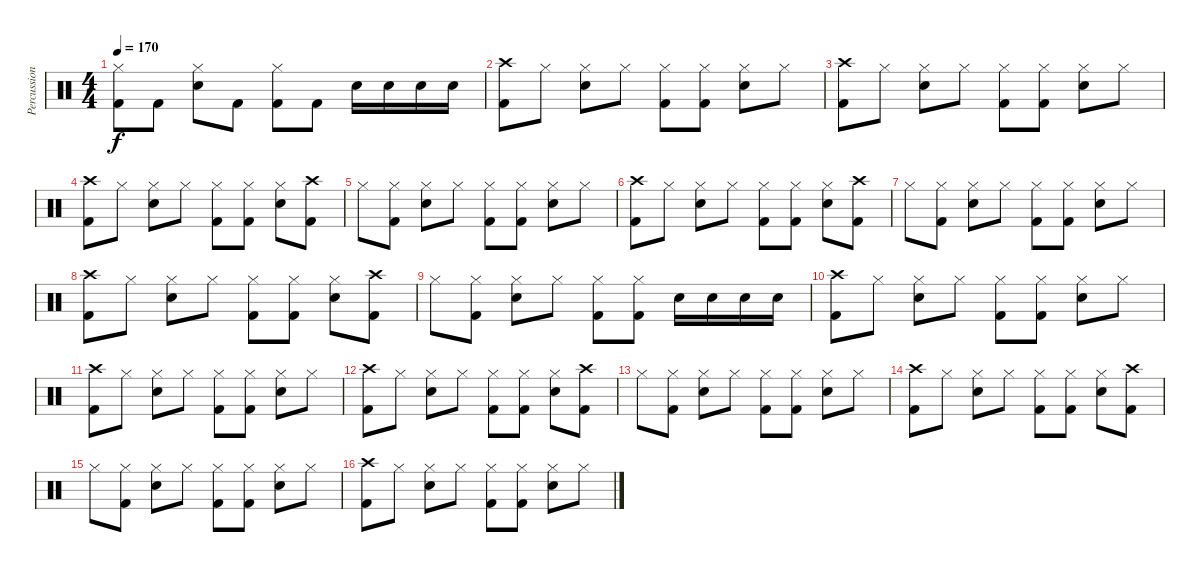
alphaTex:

\track ("Percussion" "Percussion") {instrument percussion}
\staff {score}
\articulation defaults
\ts (4 4)
\tempo 170
\clef neutral
\ks c
("Hi-Hat (closed)" "Kick (hit) 2").8{dy f} "Kick (hit) 2".8 ("Hi-Hat (closed)" "Snare (hit) 2").8 "Kick (hit) 2".8 ("Hi-Hat (closed)" "Kick (hit) 2").8 "Kick (hit) 2".8 "Snare (hit) 2".16 "Snare (hit) 2".16 "Snare (hit) 2".16 "Snare (hit) 2".16 |
("Crash high (hit)" "Kick (hit) 2").8 "Hi-Hat (closed)".8 ("Hi-Hat (closed)" "Snare (hit) 2").8 "Hi-Hat (closed)".8 ("Hi-Hat (closed)" "Kick (hit) 2").8 ("Hi-Hat (closed)" "Kick (hit) 2").8 ("Hi-Hat (closed)" "Snare (hit) 2").8 "Hi-Hat (closed)".8 |
("Crash high (hit)" "Kick (hit) 2").8 "Hi-Hat (closed)".8 ("Hi-Hat (closed)" "Snare (hit) 2").8 "Hi-Hat (closed)".8 ("Hi-Hat (closed)" "Kick (hit) 2").8 ("Hi-Hat (closed)" "Kick (hit) 2").8 ("Hi-Hat (closed)" "Snare (hit) 2").8 "Hi-Hat (closed)".8 |
("Crash high (hit)" "Kick (hit) 2").8 "Hi-Hat (closed)".8 ("Hi-Hat (closed)" "Snare (hit) 2").8 "Hi-Hat (closed)".8 ("Hi-Hat (closed)" "Kick (hit) 2").8 ("Hi-Hat (closed)" "Kick (hit) 2").8 ("Hi-Hat (closed)" "Snare (hit) 2").8 ("Crash high (hit)" "Kick (hit) 2").8 |
"Hi-Hat (closed)".8 ("Hi-Hat (closed)" "Kick (hit) 2").8 ("Hi-Hat (closed)" "Snare (hit) 2").8 "Hi-Hat (closed)".8 ("Hi-Hat (closed)" "Kick (hit) 2").8 ("Hi-Hat (closed)" "Kick (hit) 2").8 ("Hi-Hat (closed)" "Snare (hit) 2").8 "Hi-Hat (closed)".8 |
("Crash high (hit)" "Kick (hit) 2").8 "Hi-Hat (closed)".8 ("Hi-Hat (closed)" "Snare (hit) 2").8 "Hi-Hat (closed)".8 ("Hi-Hat (closed)" "Kick (hit) 2").8 ("Hi-Hat (closed)" "Kick (hit) 2").8 ("Hi-Hat (closed)" "Snare (hit) 2").8 ("Crash high (hit)" "Kick (hit) 2").8 |
"Hi-Hat (closed)".8 ("Hi-Hat (closed)" "Kick (hit) 2").8 ("Hi-Hat (closed)" "Snare (hit) 2").8 "Hi-Hat (closed)".8 ("Hi-Hat (closed)" "Kick (hit) 2").8 ("Hi-Hat (closed)" "Kick (hit) 2").8 ("Hi-Hat (closed)" "Snare (hit) 2").8 "Hi-Hat (closed)".8 |
("Crash high (hit)" "Kick (hit) 2").8 "Hi-Hat (closed)".8 ("Hi-Hat (closed)" "Snare (hit) 2").8 "Hi-Hat (closed)".8 ("Hi-Hat (closed)" "Kick (hit) 2").8 ("Hi-Hat (closed)" "Kick (hit) 2").8 ("Hi-Hat (closed)" "Snare (hit) 2").8 ("Crash high (hit)" "Kick (hit) 2").8 |
"Hi-Hat (closed)".8 ("Hi-Hat (closed)" "Kick (hit) 2").8 ("Hi-Hat (closed)" "Snare (hit) 2").8 "Hi-Hat (closed)".8 ("Hi-Hat (closed)" "Kick (hit) 2").8 ("Hi-Hat (closed)" "Kick (hit) 2").8 "Snare (hit) 2".16 "Snare (hit) 2".16 "Snare (hit) 2".16 "Snare (hit) 2".16 |
("Crash high (hit)" "Kick (hit) 2").8 "Hi-Hat (closed)".8 ("Hi-Hat (closed)" "Snare (hit) 2").8 "Hi-Hat (closed)".8 ("Hi-Hat (closed)" "Kick (hit) 2").8 ("Hi-Hat (closed)" "Kick (hit) 2").8 ("Hi-Hat (closed)" "Snare (hit) 2").8 "Hi-Hat (closed)".8 |
("Crash high (hit)" "Kick (hit) 2").8 "Hi-Hat (closed)".8 ("Hi-Hat (closed)" "Snare (hit) 2").8 "Hi-Hat (closed)".8 ("Hi-Hat (closed)" "Kick (hit) 2").8 ("Hi-Hat (closed)" "Kick (hit) 2").8 ("Hi-Hat (closed)" "Snare (hit) 2").8 "Hi-Hat (closed)".8 |
("Crash high (hit)" "Kick (hit) 2").8 "Hi-Hat (closed)".8 ("Hi-Hat (closed)" "Snare (hit) 2").8 "Hi-Hat (closed)".8 ("Hi-Hat (closed)" "Kick (hit) 2").8 ("Hi-Hat (closed)" "Kick (hit) 2").8 ("Hi-Hat (closed)" "Snare (hit) 2").8 ("Crash high (hit)" "Kick (hit) 2").8 |
"Hi-Hat (closed)".8 ("Hi-Hat (closed)" "Kick (hit) 2").8 ("Hi-Hat (closed)" "Snare (hit) 2").8 "Hi-Hat (closed)".8 ("Hi-Hat (closed)" "Kick (hit) 2").8 ("Hi-Hat (closed)" "Kick (hit) 2").8 ("Hi-Hat (closed)" "Snare (hit) 2").8 "Hi-Hat (closed)".8 |
("Crash high (hit)" "Kick (hit) 2").8 "Hi-Hat (closed)".8 ("Hi-Hat (closed)" "Snare (hit) 2").8 "Hi-Hat (closed)".8 ("Hi-Hat (closed)" "Kick (hit) 2").8 ("Hi-Hat (closed)" "Kick (hit) 2").8 ("Hi-Hat (closed)" "Snare (hit) 2").8 ("Crash high (hit)" "Kick (hit) 2").8 |
"Hi-Hat (closed)".8 ("Hi-Hat (closed)" "Kick (hit) 2").8 ("Hi-Hat (closed)" "Snare (hit) 2").8 "Hi-Hat (closed)".8 ("Hi-Hat (closed)" "Kick (hit) 2").8 ("Hi-Hat (closed)" "Kick (hit) 2").8 ("Hi-Hat (closed)" "Snare (hit) 2").8 "Hi-Hat (closed)".8 |
("Crash high (hit)" "Kick (hit) 2").8 "Hi-Hat (closed)".8 ("Hi-Hat (closed)" "Snare (hit) 2").8 "Hi-Hat (closed)".8 ("Hi-Hat (closed)" "Kick (hit) 2").8 ("Hi-Hat (closed)" "Kick (hit) 2").8 ("Hi-Hat (closed)" "Snare (hit) 2").8 "Hi-Hat (closed)".8
